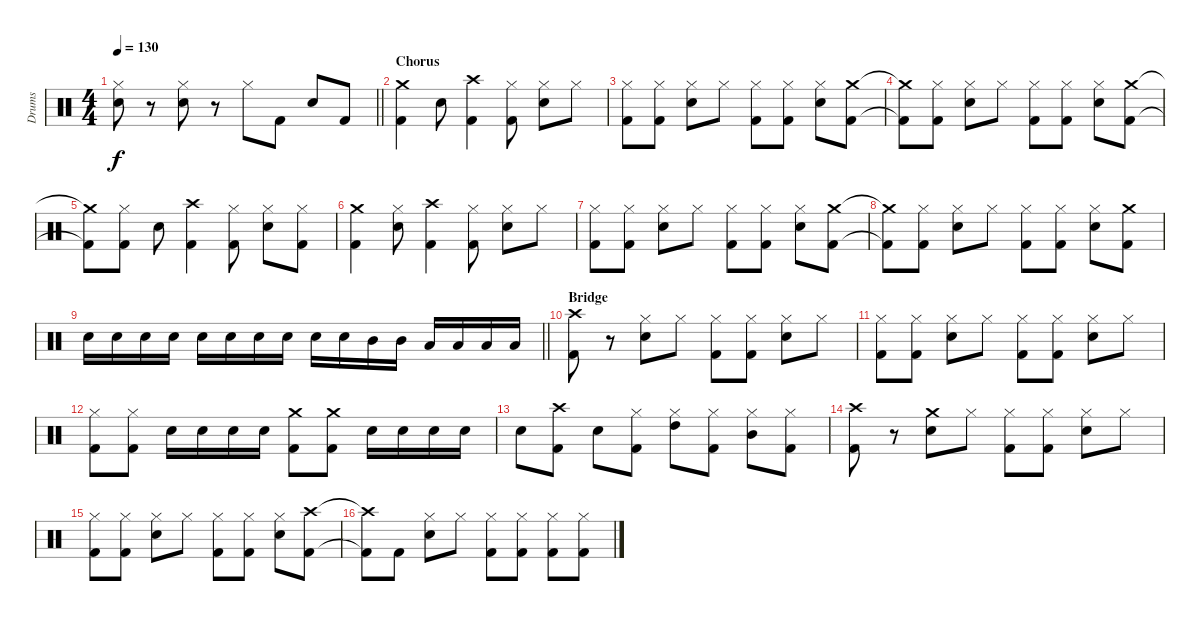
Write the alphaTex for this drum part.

\track ("Drums" "Drums") {instrument percussion}
\staff {score}
\articulation defaults
\ts (4 4)
\tempo 130
\clef neutral
\barLineRight lightlight
\ks c
("Hi-Hat (closed)" "Electric Snare (hit)").8{dy f} r.8 ("Hi-Hat (closed)" "Electric Snare (hit)").8 r.8 "Hi-Hat (closed)".8 "Kick (hit) 2".8 "Electric Snare (hit)".8 "Kick (hit) 2".8 |
\section ("" "Chorus")
("Crash medium (hit)" "Kick (hit) 2").4 "Electric Snare (hit)".8 ("Crash high (hit)" "Kick (hit) 2").4 ("Hi-Hat (closed)" "Kick (hit) 2").8 ("Hi-Hat (closed)" "Electric Snare (hit)").8 "Hi-Hat (closed)".8 |
("Hi-Hat (closed)" "Kick (hit) 2").8 ("Hi-Hat (closed)" "Kick (hit) 2").8 ("Hi-Hat (closed)" "Electric Snare (hit)").8 "Hi-Hat (closed)".8 ("Hi-Hat (closed)" "Kick (hit) 2").8 ("Hi-Hat (closed)" "Kick (hit) 2").8 ("Hi-Hat (closed)" "Electric Snare (hit)").8 ("Crash medium (hit)" "Kick (hit) 2").8 |
("Crash medium (hit)"{t} "Kick (hit) 2"{t}).8 ("Hi-Hat (closed)" "Kick (hit) 2").8 ("Hi-Hat (closed)" "Electric Snare (hit)").8 "Hi-Hat (closed)".8 ("Hi-Hat (closed)" "Kick (hit) 2").8 ("Hi-Hat (closed)" "Kick (hit) 2").8 ("Hi-Hat (closed)" "Electric Snare (hit)").8 ("Crash medium (hit)" "Kick (hit) 2").8 |
("Crash medium (hit)"{t} "Kick (hit) 2"{t}).8 ("Hi-Hat (closed)" "Kick (hit) 2").8 "Electric Snare (hit)".8 ("Crash high (hit)" "Kick (hit) 2").4 ("Hi-Hat (closed)" "Kick (hit) 2").8 ("Hi-Hat (closed)" "Electric Snare (hit)").8 ("Hi-Hat (closed)" "Kick (hit) 2").8 |
("Crash medium (hit)" "Kick (hit) 2").4 ("Hi-Hat (closed)" "Electric Snare (hit)").8 ("Crash high (hit)" "Kick (hit) 2").4 ("Hi-Hat (closed)" "Kick (hit) 2").8 ("Hi-Hat (closed)" "Electric Snare (hit)").8 "Hi-Hat (closed)".8 |
("Hi-Hat (closed)" "Kick (hit) 2").8 ("Hi-Hat (closed)" "Kick (hit) 2").8 ("Hi-Hat (closed)" "Electric Snare (hit)").8 "Hi-Hat (closed)".8 ("Hi-Hat (closed)" "Kick (hit) 2").8 ("Hi-Hat (closed)" "Kick (hit) 2").8 ("Hi-Hat (closed)" "Electric Snare (hit)").8 ("Crash medium (hit)" "Kick (hit) 2").8 |
("Crash medium (hit)"{t} "Kick (hit) 2"{t}).8 ("Hi-Hat (closed)" "Kick (hit) 2").8 ("Hi-Hat (closed)" "Electric Snare (hit)").8 "Hi-Hat (closed)".8 ("Hi-Hat (closed)" "Kick (hit) 2").8 ("Hi-Hat (closed)" "Kick (hit) 2").8 ("Hi-Hat (closed)" "Electric Snare (hit)").8 ("Crash medium (hit)" "Kick (hit) 2").8 |
\barLineRight lightlight "Electric Snare (hit)".16 "Electric Snare (hit)".16 "Electric Snare (hit)".16 "Electric Snare (hit)".16 "Electric Snare (hit)".16 "Electric Snare (hit)".16 "Electric Snare (hit)".16 "Electric Snare (hit)".16 "Electric Snare (hit)".16 "Electric Snare (hit)".16 "Mid Tom (hit)".16 "Mid Tom (hit)".16 "Low Tom (hit)".16 "Low Tom (hit)".16 "Low Tom (hit)".16 "Low Tom (hit)".16
|
\section ("" "Bridge")
("Crash high (hit)" "Kick (hit) 2").8 r.8 ("Hi-Hat (closed)" "Electric Snare (hit)").8 "Hi-Hat (closed)".8 ("Hi-Hat (closed)" "Kick (hit) 2").8 ("Hi-Hat (closed)" "Kick (hit) 2").8 ("Hi-Hat (closed)" "Electric Snare (hit)").8 "Hi-Hat (closed)".8 |
("Hi-Hat (closed)" "Kick (hit) 2").8 ("Hi-Hat (closed)" "Kick (hit) 2").8 ("Hi-Hat (closed)" "Electric Snare (hit)").8 "Hi-Hat (closed)".8 ("Hi-Hat (closed)" "Kick (hit) 2").8 ("Hi-Hat (closed)" "Kick (hit) 2").8 ("Hi-Hat (closed)" "Electric Snare (hit)").8 "Hi-Hat (closed)".8 |
("Hi-Hat (closed)" "Kick (hit) 2").8 ("Hi-Hat (closed)" "Kick (hit) 2").8 "Electric Snare (hit)".16 "Electric Snare (hit)".16 "Electric Snare (hit)".16 "Electric Snare (hit)".16 ("Crash medium (hit)" "Kick (hit) 2").8 ("Crash medium (hit)" "Kick (hit) 2").8 "Electric Snare (hit)".16 "Electric Snare (hit)".16 "Electric Snare (hit)".16 "Electric Snare (hit)".16 |
"Electric Snare (hit)".8 ("Crash high (hit)" "Kick (hit) 2").8 "Electric Snare (hit)".8 ("Hi-Hat (closed)" "Kick (hit) 2").8 ("Hi-Hat (closed)" "High Tom (hit)").8 ("Hi-Hat (closed)" "Kick (hit) 2").8 ("Hi-Hat (closed)" "Mid Tom (hit)").8 ("Hi-Hat (closed)" "Kick (hit) 2").8 |
("Crash high (hit)" "Kick (hit) 2").8 r.8 ("Crash medium (hit)" "Electric Snare (hit)").8 "Hi-Hat (closed)".8 ("Hi-Hat (closed)" "Kick (hit) 2").8 ("Hi-Hat (closed)" "Kick (hit) 2").8 ("Hi-Hat (closed)" "Electric Snare (hit)").8 "Hi-Hat (closed)".8 |
("Hi-Hat (closed)" "Kick (hit) 2").8 ("Hi-Hat (closed)" "Kick (hit) 2").8 ("Hi-Hat (closed)" "Electric Snare (hit)").8 "Hi-Hat (closed)".8 ("Hi-Hat (closed)" "Kick (hit) 2").8 ("Hi-Hat (closed)" "Kick (hit) 2").8 ("Hi-Hat (closed)" "Electric Snare (hit)").8 ("Crash high (hit)" "Kick (hit) 2").8 |
("Crash high (hit)"{t} "Kick (hit) 2"{t}).8 "Kick (hit) 2".8 ("Hi-Hat (closed)" "Electric Snare (hit)").8 "Hi-Hat (closed)".8 ("Hi-Hat (closed)" "Kick (hit) 2").8 ("Hi-Hat (closed)" "Kick (hit) 2").8 ("Hi-Hat (closed)" "Kick (hit) 2").8 ("Hi-Hat (closed)" "Kick (hit) 2").8
